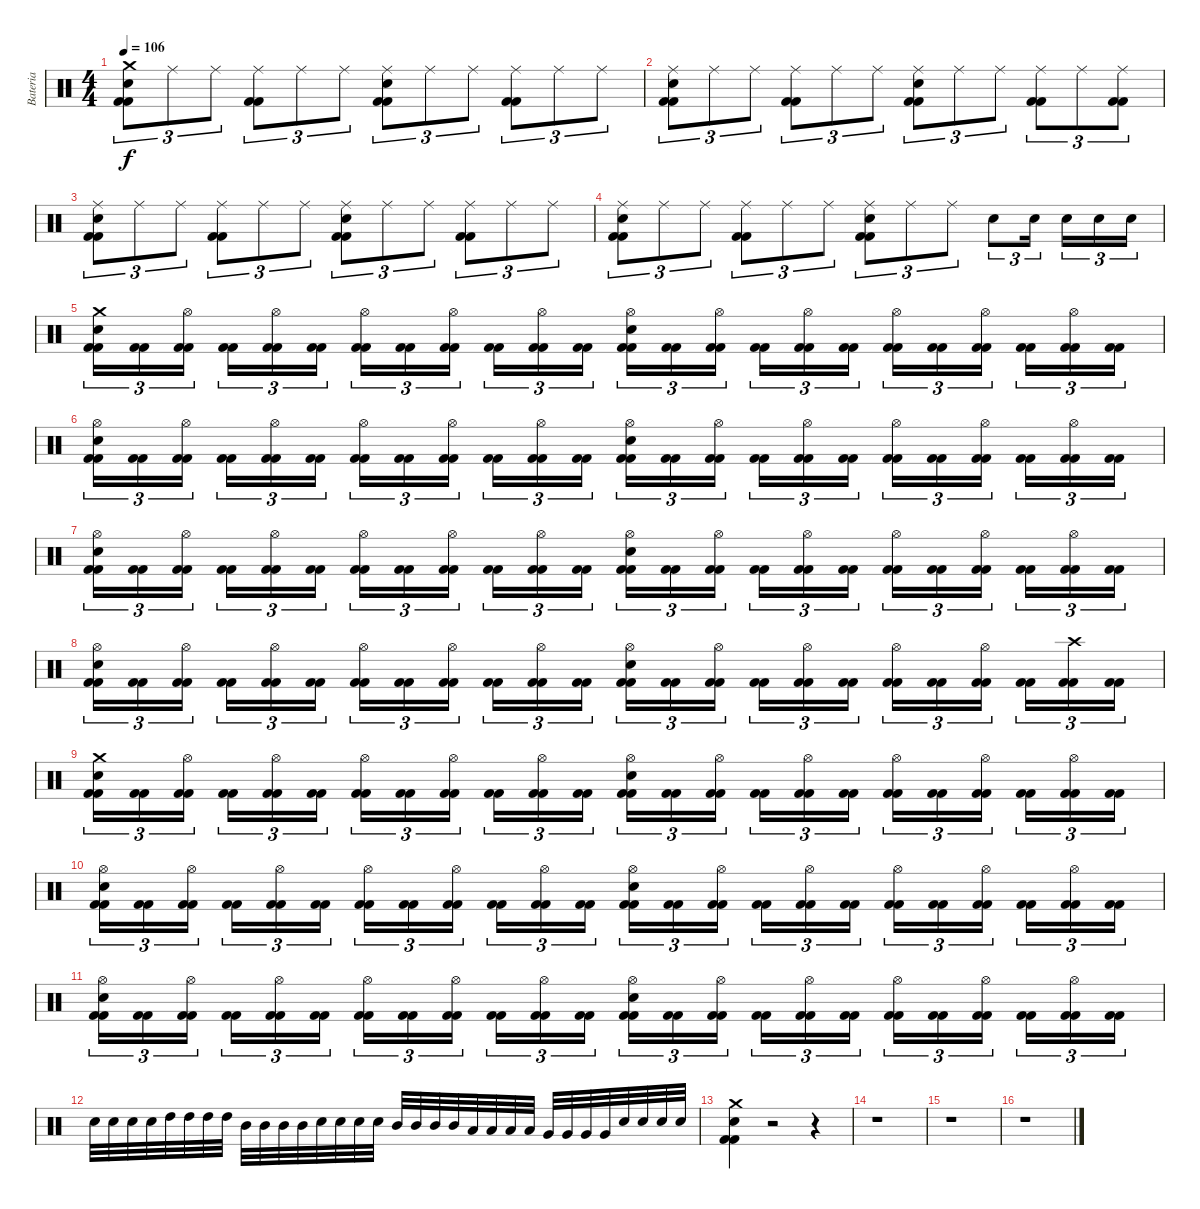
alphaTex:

\track ("Bateria" "Bateria") {instrument percussion}
\staff {score}
\articulation defaults
\ts (4 4)
\tempo 106
\clef neutral
\ks c
("Kick (hit) 2" "Kick (hit) 2" "Snare (hit) 2" "Crash medium (hit)").8{tu (3 2) dy f} "Ride (middle)".8{tu (3 2)} "Ride (middle)".8{tu (3 2)} ("Kick (hit) 2" "Kick (hit) 2" "Ride (middle)").8{tu (3 2)} "Ride (middle)".8{tu (3 2)} "Ride (middle)".8{tu (3 2)} ("Kick (hit) 2" "Kick (hit) 2" "Snare (hit) 2" "Ride (middle)").8{tu (3 2)} "Ride (middle)".8{tu (3 2)} "Ride (middle)".8{tu (3 2)} ("Kick (hit) 2" "Kick (hit) 2" "Ride (middle)").8{tu (3 2)} "Ride (middle)".8{tu (3 2)} "Ride (middle)".8{tu (3 2)} |
("Kick (hit) 2" "Kick (hit) 2" "Snare (hit) 2" "Ride (middle)").8{tu (3 2)} "Ride (middle)".8{tu (3 2)} "Ride (middle)".8{tu (3 2)} ("Kick (hit) 2" "Kick (hit) 2" "Ride (middle)").8{tu (3 2)} "Ride (middle)".8{tu (3 2)} "Ride (middle)".8{tu (3 2)} ("Kick (hit) 2" "Kick (hit) 2" "Snare (hit) 2" "Ride (middle)").8{tu (3 2)} "Ride (middle)".8{tu (3 2)} "Ride (middle)".8{tu (3 2)} ("Kick (hit) 2" "Kick (hit) 2" "Ride (middle)").8{tu (3 2)} "Ride (middle)".8{tu (3 2)} ("Kick (hit) 2" "Kick (hit) 2" "Ride (middle)").8{tu (3 2)} |
("Kick (hit) 2" "Kick (hit) 2" "Snare (hit) 2" "Ride (middle)").8{tu (3 2)} "Ride (middle)".8{tu (3 2)} "Ride (middle)".8{tu (3 2)} ("Kick (hit) 2" "Kick (hit) 2" "Ride (middle)").8{tu (3 2)} "Ride (middle)".8{tu (3 2)} "Ride (middle)".8{tu (3 2)} ("Kick (hit) 2" "Kick (hit) 2" "Snare (hit) 2" "Ride (middle)").8{tu (3 2)} "Ride (middle)".8{tu (3 2)} "Ride (middle)".8{tu (3 2)} ("Kick (hit) 2" "Kick (hit) 2" "Ride (middle)").8{tu (3 2)} "Ride (middle)".8{tu (3 2)} "Ride (middle)".8{tu (3 2)} |
("Kick (hit) 2" "Kick (hit) 2" "Snare (hit) 2" "Ride (middle)").8{tu (3 2)} "Ride (middle)".8{tu (3 2)} "Ride (middle)".8{tu (3 2)} ("Kick (hit) 2" "Kick (hit) 2" "Ride (middle)").8{tu (3 2)} "Ride (middle)".8{tu (3 2)} "Ride (middle)".8{tu (3 2)} ("Kick (hit) 2" "Kick (hit) 2" "Snare (hit) 2" "Ride (middle)").8{tu (3 2)} "Ride (middle)".8{tu (3 2)} "Ride (middle)".8{tu (3 2)} "Snare (hit) 2".8{tu (3 2)} "Snare (hit) 2".16{tu (3 2)} "Snare (hit) 2".16{tu (3 2)} "Snare (hit) 2".16{tu (3 2)} "Snare (hit) 2".16{tu (3 2)} |
("Kick (hit) 2" "Kick (hit) 2" "Snare (hit) 2" "Crash medium (hit)").16{tu (3 2)} ("Kick (hit) 2" "Kick (hit) 2").16{tu (3 2)} ("Kick (hit) 2" "Kick (hit) 2" "Hi-Hat (open)").16{tu (3 2)} ("Kick (hit) 2" "Kick (hit) 2").16{tu (3 2)} ("Kick (hit) 2" "Kick (hit) 2" "Hi-Hat (open)").16{tu (3 2)} ("Kick (hit) 2" "Kick (hit) 2").16{tu (3 2)} ("Kick (hit) 2" "Kick (hit) 2" "Hi-Hat (open)").16{tu (3 2)} ("Kick (hit) 2" "Kick (hit) 2").16{tu (3 2)} ("Kick (hit) 2" "Kick (hit) 2" "Hi-Hat (open)").16{tu (3 2)} ("Kick (hit) 2" "Kick (hit) 2").16{tu (3 2)} ("Kick (hit) 2" "Kick (hit) 2" "Hi-Hat (open)").16{tu (3 2)} ("Kick (hit) 2" "Kick (hit) 2").16{tu (3 2)} ("Kick (hit) 2" "Kick (hit) 2" "Snare (hit) 2" "Hi-Hat (open)").16{tu (3 2)} ("Kick (hit) 2" "Kick (hit) 2").16{tu (3 2)} ("Kick (hit) 2" "Kick (hit) 2" "Hi-Hat (open)").16{tu (3 2)} ("Kick (hit) 2" "Kick (hit) 2").16{tu (3 2)} ("Kick (hit) 2" "Kick (hit) 2" "Hi-Hat (open)").16{tu (3 2)} ("Kick (hit) 2" "Kick (hit) 2").16{tu (3 2)} ("Kick (hit) 2" "Kick (hit) 2" "Hi-Hat (open)").16{tu (3 2)} ("Kick (hit) 2" "Kick (hit) 2").16{tu (3 2)} ("Kick (hit) 2" "Kick (hit) 2" "Hi-Hat (open)").16{tu (3 2)} ("Kick (hit) 2" "Kick (hit) 2").16{tu (3 2)} ("Kick (hit) 2" "Kick (hit) 2" "Hi-Hat (open)").16{tu (3 2)} ("Kick (hit) 2" "Kick (hit) 2").16{tu (3 2)} |
("Kick (hit) 2" "Kick (hit) 2" "Snare (hit) 2" "Hi-Hat (open)").16{tu (3 2)} ("Kick (hit) 2" "Kick (hit) 2").16{tu (3 2)} ("Kick (hit) 2" "Kick (hit) 2" "Hi-Hat (open)").16{tu (3 2)} ("Kick (hit) 2" "Kick (hit) 2").16{tu (3 2)} ("Kick (hit) 2" "Kick (hit) 2" "Hi-Hat (open)").16{tu (3 2)} ("Kick (hit) 2" "Kick (hit) 2").16{tu (3 2)} ("Kick (hit) 2" "Kick (hit) 2" "Hi-Hat (open)").16{tu (3 2)} ("Kick (hit) 2" "Kick (hit) 2").16{tu (3 2)} ("Kick (hit) 2" "Kick (hit) 2" "Hi-Hat (open)").16{tu (3 2)} ("Kick (hit) 2" "Kick (hit) 2").16{tu (3 2)} ("Kick (hit) 2" "Kick (hit) 2" "Hi-Hat (open)").16{tu (3 2)} ("Kick (hit) 2" "Kick (hit) 2").16{tu (3 2)} ("Kick (hit) 2" "Kick (hit) 2" "Snare (hit) 2" "Hi-Hat (open)").16{tu (3 2)} ("Kick (hit) 2" "Kick (hit) 2").16{tu (3 2)} ("Kick (hit) 2" "Kick (hit) 2" "Hi-Hat (open)").16{tu (3 2)} ("Kick (hit) 2" "Kick (hit) 2").16{tu (3 2)} ("Kick (hit) 2" "Kick (hit) 2" "Hi-Hat (open)").16{tu (3 2)} ("Kick (hit) 2" "Kick (hit) 2").16{tu (3 2)} ("Kick (hit) 2" "Kick (hit) 2" "Hi-Hat (open)").16{tu (3 2)} ("Kick (hit) 2" "Kick (hit) 2").16{tu (3 2)} ("Kick (hit) 2" "Kick (hit) 2" "Hi-Hat (open)").16{tu (3 2)} ("Kick (hit) 2" "Kick (hit) 2").16{tu (3 2)} ("Kick (hit) 2" "Kick (hit) 2" "Hi-Hat (open)").16{tu (3 2)} ("Kick (hit) 2" "Kick (hit) 2").16{tu (3 2)} |
("Kick (hit) 2" "Kick (hit) 2" "Snare (hit) 2" "Hi-Hat (open)").16{tu (3 2)} ("Kick (hit) 2" "Kick (hit) 2").16{tu (3 2)} ("Kick (hit) 2" "Kick (hit) 2" "Hi-Hat (open)").16{tu (3 2)} ("Kick (hit) 2" "Kick (hit) 2").16{tu (3 2)} ("Kick (hit) 2" "Kick (hit) 2" "Hi-Hat (open)").16{tu (3 2)} ("Kick (hit) 2" "Kick (hit) 2").16{tu (3 2)} ("Kick (hit) 2" "Kick (hit) 2" "Hi-Hat (open)").16{tu (3 2)} ("Kick (hit) 2" "Kick (hit) 2").16{tu (3 2)} ("Kick (hit) 2" "Kick (hit) 2" "Hi-Hat (open)").16{tu (3 2)} ("Kick (hit) 2" "Kick (hit) 2").16{tu (3 2)} ("Kick (hit) 2" "Kick (hit) 2" "Hi-Hat (open)").16{tu (3 2)} ("Kick (hit) 2" "Kick (hit) 2").16{tu (3 2)} ("Kick (hit) 2" "Kick (hit) 2" "Snare (hit) 2" "Hi-Hat (open)").16{tu (3 2)} ("Kick (hit) 2" "Kick (hit) 2").16{tu (3 2)} ("Kick (hit) 2" "Kick (hit) 2" "Hi-Hat (open)").16{tu (3 2)} ("Kick (hit) 2" "Kick (hit) 2").16{tu (3 2)} ("Kick (hit) 2" "Kick (hit) 2" "Hi-Hat (open)").16{tu (3 2)} ("Kick (hit) 2" "Kick (hit) 2").16{tu (3 2)} ("Kick (hit) 2" "Kick (hit) 2" "Hi-Hat (open)").16{tu (3 2)} ("Kick (hit) 2" "Kick (hit) 2").16{tu (3 2)} ("Kick (hit) 2" "Kick (hit) 2" "Hi-Hat (open)").16{tu (3 2)} ("Kick (hit) 2" "Kick (hit) 2").16{tu (3 2)} ("Kick (hit) 2" "Kick (hit) 2" "Hi-Hat (open)").16{tu (3 2)} ("Kick (hit) 2" "Kick (hit) 2").16{tu (3 2)} |
("Kick (hit) 2" "Kick (hit) 2" "Snare (hit) 2" "Hi-Hat (open)").16{tu (3 2)} ("Kick (hit) 2" "Kick (hit) 2").16{tu (3 2)} ("Kick (hit) 2" "Kick (hit) 2" "Hi-Hat (open)").16{tu (3 2)} ("Kick (hit) 2" "Kick (hit) 2").16{tu (3 2)} ("Kick (hit) 2" "Kick (hit) 2" "Hi-Hat (open)").16{tu (3 2)} ("Kick (hit) 2" "Kick (hit) 2").16{tu (3 2)} ("Kick (hit) 2" "Kick (hit) 2" "Hi-Hat (open)").16{tu (3 2)} ("Kick (hit) 2" "Kick (hit) 2").16{tu (3 2)} ("Kick (hit) 2" "Kick (hit) 2" "Hi-Hat (open)").16{tu (3 2)} ("Kick (hit) 2" "Kick (hit) 2").16{tu (3 2)} ("Kick (hit) 2" "Kick (hit) 2" "Hi-Hat (open)").16{tu (3 2)} ("Kick (hit) 2" "Kick (hit) 2").16{tu (3 2)} ("Kick (hit) 2" "Kick (hit) 2" "Snare (hit) 2" "Hi-Hat (open)").16{tu (3 2)} ("Kick (hit) 2" "Kick (hit) 2").16{tu (3 2)} ("Kick (hit) 2" "Kick (hit) 2" "Hi-Hat (open)").16{tu (3 2)} ("Kick (hit) 2" "Kick (hit) 2").16{tu (3 2)} ("Kick (hit) 2" "Kick (hit) 2" "Hi-Hat (open)").16{tu (3 2)} ("Kick (hit) 2" "Kick (hit) 2").16{tu (3 2)} ("Kick (hit) 2" "Kick (hit) 2" "Hi-Hat (open)").16{tu (3 2)} ("Kick (hit) 2" "Kick (hit) 2").16{tu (3 2)} ("Kick (hit) 2" "Kick (hit) 2" "Hi-Hat (open)").16{tu (3 2)} ("Kick (hit) 2" "Kick (hit) 2").16{tu (3 2)} ("Kick (hit) 2" "Kick (hit) 2" "Crash high (hit)").16{tu (3 2)} ("Kick (hit) 2" "Kick (hit) 2").16{tu (3 2)} |
("Kick (hit) 2" "Kick (hit) 2" "Snare (hit) 2" "Crash medium (hit)").16{tu (3 2)} ("Kick (hit) 2" "Kick (hit) 2").16{tu (3 2)} ("Kick (hit) 2" "Kick (hit) 2" "Hi-Hat (open)").16{tu (3 2)} ("Kick (hit) 2" "Kick (hit) 2").16{tu (3 2)} ("Kick (hit) 2" "Kick (hit) 2" "Hi-Hat (open)").16{tu (3 2)} ("Kick (hit) 2" "Kick (hit) 2").16{tu (3 2)} ("Kick (hit) 2" "Kick (hit) 2" "Hi-Hat (open)").16{tu (3 2)} ("Kick (hit) 2" "Kick (hit) 2").16{tu (3 2)} ("Kick (hit) 2" "Kick (hit) 2" "Hi-Hat (open)").16{tu (3 2)} ("Kick (hit) 2" "Kick (hit) 2").16{tu (3 2)} ("Kick (hit) 2" "Kick (hit) 2" "Hi-Hat (open)").16{tu (3 2)} ("Kick (hit) 2" "Kick (hit) 2").16{tu (3 2)} ("Kick (hit) 2" "Kick (hit) 2" "Snare (hit) 2" "Hi-Hat (open)").16{tu (3 2)} ("Kick (hit) 2" "Kick (hit) 2").16{tu (3 2)} ("Kick (hit) 2" "Kick (hit) 2" "Hi-Hat (open)").16{tu (3 2)} ("Kick (hit) 2" "Kick (hit) 2").16{tu (3 2)} ("Kick (hit) 2" "Kick (hit) 2" "Hi-Hat (open)").16{tu (3 2)} ("Kick (hit) 2" "Kick (hit) 2").16{tu (3 2)} ("Kick (hit) 2" "Kick (hit) 2" "Hi-Hat (open)").16{tu (3 2)} ("Kick (hit) 2" "Kick (hit) 2").16{tu (3 2)} ("Kick (hit) 2" "Kick (hit) 2" "Hi-Hat (open)").16{tu (3 2)} ("Kick (hit) 2" "Kick (hit) 2").16{tu (3 2)} ("Kick (hit) 2" "Kick (hit) 2" "Hi-Hat (open)").16{tu (3 2)} ("Kick (hit) 2" "Kick (hit) 2").16{tu (3 2)} |
("Kick (hit) 2" "Kick (hit) 2" "Snare (hit) 2" "Hi-Hat (open)").16{tu (3 2)} ("Kick (hit) 2" "Kick (hit) 2").16{tu (3 2)} ("Kick (hit) 2" "Kick (hit) 2" "Hi-Hat (open)").16{tu (3 2)} ("Kick (hit) 2" "Kick (hit) 2").16{tu (3 2)} ("Kick (hit) 2" "Kick (hit) 2" "Hi-Hat (open)").16{tu (3 2)} ("Kick (hit) 2" "Kick (hit) 2").16{tu (3 2)} ("Kick (hit) 2" "Kick (hit) 2" "Hi-Hat (open)").16{tu (3 2)} ("Kick (hit) 2" "Kick (hit) 2").16{tu (3 2)} ("Kick (hit) 2" "Kick (hit) 2" "Hi-Hat (open)").16{tu (3 2)} ("Kick (hit) 2" "Kick (hit) 2").16{tu (3 2)} ("Kick (hit) 2" "Kick (hit) 2" "Hi-Hat (open)").16{tu (3 2)} ("Kick (hit) 2" "Kick (hit) 2").16{tu (3 2)} ("Kick (hit) 2" "Kick (hit) 2" "Snare (hit) 2" "Hi-Hat (open)").16{tu (3 2)} ("Kick (hit) 2" "Kick (hit) 2").16{tu (3 2)} ("Kick (hit) 2" "Kick (hit) 2" "Hi-Hat (open)").16{tu (3 2)} ("Kick (hit) 2" "Kick (hit) 2").16{tu (3 2)} ("Kick (hit) 2" "Kick (hit) 2" "Hi-Hat (open)").16{tu (3 2)} ("Kick (hit) 2" "Kick (hit) 2").16{tu (3 2)} ("Kick (hit) 2" "Kick (hit) 2" "Hi-Hat (open)").16{tu (3 2)} ("Kick (hit) 2" "Kick (hit) 2").16{tu (3 2)} ("Kick (hit) 2" "Kick (hit) 2" "Hi-Hat (open)").16{tu (3 2)} ("Kick (hit) 2" "Kick (hit) 2").16{tu (3 2)} ("Kick (hit) 2" "Kick (hit) 2" "Hi-Hat (open)").16{tu (3 2)} ("Kick (hit) 2" "Kick (hit) 2").16{tu (3 2)} |
("Kick (hit) 2" "Kick (hit) 2" "Snare (hit) 2" "Hi-Hat (open)").16{tu (3 2)} ("Kick (hit) 2" "Kick (hit) 2").16{tu (3 2)} ("Kick (hit) 2" "Kick (hit) 2" "Hi-Hat (open)").16{tu (3 2)} ("Kick (hit) 2" "Kick (hit) 2").16{tu (3 2)} ("Kick (hit) 2" "Kick (hit) 2" "Hi-Hat (open)").16{tu (3 2)} ("Kick (hit) 2" "Kick (hit) 2").16{tu (3 2)} ("Kick (hit) 2" "Kick (hit) 2" "Hi-Hat (open)").16{tu (3 2)} ("Kick (hit) 2" "Kick (hit) 2").16{tu (3 2)} ("Kick (hit) 2" "Kick (hit) 2" "Hi-Hat (open)").16{tu (3 2)} ("Kick (hit) 2" "Kick (hit) 2").16{tu (3 2)} ("Kick (hit) 2" "Kick (hit) 2" "Hi-Hat (open)").16{tu (3 2)} ("Kick (hit) 2" "Kick (hit) 2").16{tu (3 2)} ("Kick (hit) 2" "Kick (hit) 2" "Snare (hit) 2" "Hi-Hat (open)").16{tu (3 2)} ("Kick (hit) 2" "Kick (hit) 2").16{tu (3 2)} ("Kick (hit) 2" "Kick (hit) 2" "Hi-Hat (open)").16{tu (3 2)} ("Kick (hit) 2" "Kick (hit) 2").16{tu (3 2)} ("Kick (hit) 2" "Kick (hit) 2" "Hi-Hat (open)").16{tu (3 2)} ("Kick (hit) 2" "Kick (hit) 2").16{tu (3 2)} ("Kick (hit) 2" "Kick (hit) 2" "Hi-Hat (open)").16{tu (3 2)} ("Kick (hit) 2" "Kick (hit) 2").16{tu (3 2)} ("Kick (hit) 2" "Kick (hit) 2" "Hi-Hat (open)").16{tu (3 2)} ("Kick (hit) 2" "Kick (hit) 2").16{tu (3 2)} ("Kick (hit) 2" "Kick (hit) 2" "Hi-Hat (open)").16{tu (3 2)} ("Kick (hit) 2" "Kick (hit) 2").16{tu (3 2)} |
"Snare (hit) 2".32 "Snare (hit) 2".32 "Snare (hit) 2".32 "Snare (hit) 2".32 "High Tom (hit)".32 "High Tom (hit)".32 "High Tom (hit)".32 "High Tom (hit)".32 "Mid Tom (hit)".32 "Mid Tom (hit)".32 "Mid Tom (hit)".32 "Mid Tom (hit)".32 "Snare (hit) 2".32 "Snare (hit) 2".32 "Snare (hit) 2".32 "Snare (hit) 2".32 "Mid Tom (hit)".32 "Mid Tom (hit)".32 "Mid Tom (hit)".32 "Mid Tom (hit)".32 "Low Tom (hit)".32 "Low Tom (hit)".32 "Low Tom (hit)".32 "Low Tom (hit)".32 "Very Low Tom (hit)".32 "Very Low Tom (hit)".32 "Very Low Tom (hit)".32 "Very Low Tom (hit)".32 "Snare (hit) 2".32 "Snare (hit) 2".32 "Snare (hit) 2".32 "Snare (hit) 2".32 |
("Kick (hit) 2" "Kick (hit) 2" "Snare (hit) 2" "Crash medium (hit)").4 r.2 r.4 |
r.1 |
r.1 |
r.1
